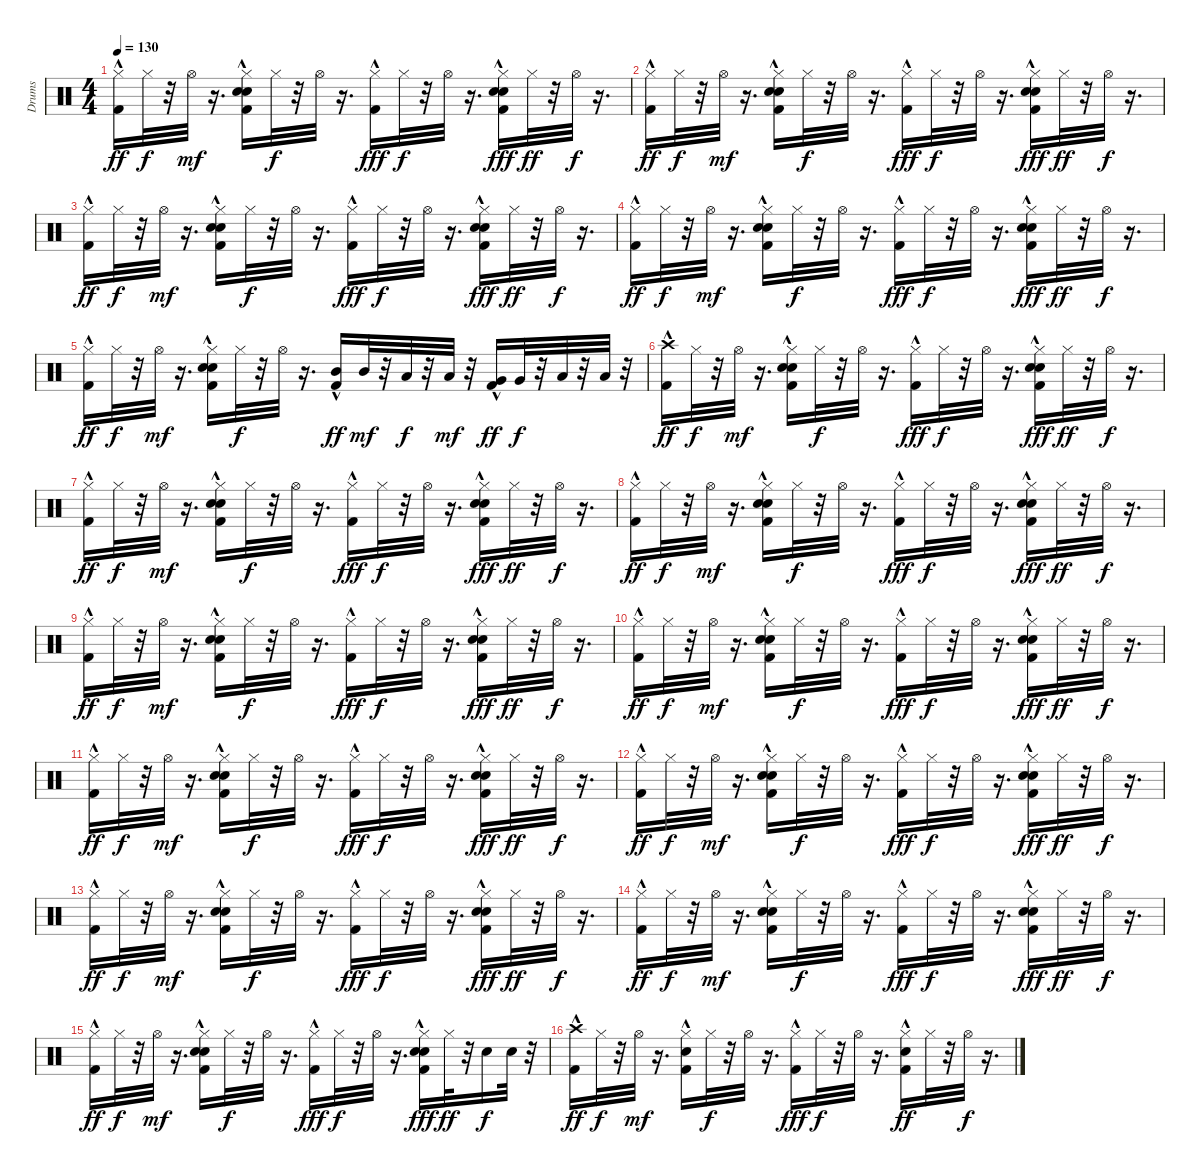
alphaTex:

\track ("Drums" "Drums") {instrument percussion}
\staff {score}
\articulation defaults
\ts (4 4)
\tempo 130
\clef neutral
\ks c
("Kick (hit) 2"{hac} "Hi-Hat (closed)").16{dy ff} "Hi-Hat (closed)".32{dy f} r.32 "Hi-Hat (open)".32{dy mf} r.16{d} ("Kick (hit) 2"{hac} "Hand Clap (hit)" "Electric Snare (hit)" "Hi-Hat (closed)").16 "Hi-Hat (closed)".32{dy f} r.32 "Hi-Hat (open)".32 r.16{d} ("Kick (hit) 2"{hac} "Hi-Hat (closed)").16{dy fff} "Hi-Hat (closed)".32{dy f} r.32 "Hi-Hat (open)".32 r.16{d} ("Kick (hit) 2"{hac} "Hand Clap (hit)" "Electric Snare (hit)" "Hi-Hat (closed)").16{dy fff} "Hi-Hat (closed)".32{dy ff} r.32 "Hi-Hat (open)".32{dy f} r.16{d} |
("Kick (hit) 2"{hac} "Hi-Hat (closed)").16{dy ff} "Hi-Hat (closed)".32{dy f} r.32 "Hi-Hat (open)".32{dy mf} r.16{d} ("Kick (hit) 2"{hac} "Hand Clap (hit)" "Electric Snare (hit)" "Hi-Hat (closed)").16 "Hi-Hat (closed)".32{dy f} r.32 "Hi-Hat (open)".32 r.16{d} ("Kick (hit) 2"{hac} "Hi-Hat (closed)").16{dy fff} "Hi-Hat (closed)".32{dy f} r.32 "Hi-Hat (open)".32 r.16{d} ("Kick (hit) 2"{hac} "Hand Clap (hit)" "Electric Snare (hit)" "Hi-Hat (closed)").16{dy fff} "Hi-Hat (closed)".32{dy ff} r.32 "Hi-Hat (open)".32{dy f} r.16{d} |
("Kick (hit) 2"{hac} "Hi-Hat (closed)").16{dy ff} "Hi-Hat (closed)".32{dy f} r.32 "Hi-Hat (open)".32{dy mf} r.16{d} ("Kick (hit) 2"{hac} "Hand Clap (hit)" "Electric Snare (hit)" "Hi-Hat (closed)").16 "Hi-Hat (closed)".32{dy f} r.32 "Hi-Hat (open)".32 r.16{d} ("Kick (hit) 2"{hac} "Hi-Hat (closed)").16{dy fff} "Hi-Hat (closed)".32{dy f} r.32 "Hi-Hat (open)".32 r.16{d} ("Kick (hit) 2"{hac} "Hand Clap (hit)" "Electric Snare (hit)" "Hi-Hat (closed)").16{dy fff} "Hi-Hat (closed)".32{dy ff} r.32 "Hi-Hat (open)".32{dy f} r.16{d} |
("Kick (hit) 2"{hac} "Hi-Hat (closed)").16{dy ff} "Hi-Hat (closed)".32{dy f} r.32 "Hi-Hat (open)".32{dy mf} r.16{d} ("Kick (hit) 2"{hac} "Hand Clap (hit)" "Electric Snare (hit)" "Hi-Hat (closed)").16 "Hi-Hat (closed)".32{dy f} r.32 "Hi-Hat (open)".32 r.16{d} ("Kick (hit) 2"{hac} "Hi-Hat (closed)").16{dy fff} "Hi-Hat (closed)".32{dy f} r.32 "Hi-Hat (open)".32 r.16{d} ("Kick (hit) 2"{hac} "Hand Clap (hit)" "Electric Snare (hit)" "Hi-Hat (closed)").16{dy fff} "Hi-Hat (closed)".32{dy ff} r.32 "Hi-Hat (open)".32{dy f} r.16{d} |
("Kick (hit) 2"{hac} "Hi-Hat (closed)").16{dy ff} "Hi-Hat (closed)".32{dy f} r.32 "Hi-Hat (open)".32{dy mf} r.16{d} ("Kick (hit) 2"{hac} "Hand Clap (hit)" "Electric Snare (hit)" "Hi-Hat (closed)").16 "Hi-Hat (closed)".32{dy f} r.32 "Hi-Hat (open)".32 r.16{d} ("Kick (hit) 2"{hac} "Mid Tom (hit)").16{dy ff} "Mid Tom (hit)".32{dy mf} r.32 "Low Tom (hit)".32{dy f} r.32 "Low Tom (hit)".32{dy mf} r.32 ("Kick (hit) 2"{hac} "Very Low Tom (hit)").16{dy ff} "Very Low Tom (hit)".32{dy f} r.32 "Low Floor Tom (hit)".32 r.32 "Low Floor Tom (hit)".32 r.32 |
("Kick (hit) 2"{hac} "Crash high (hit)").16{dy ff} "Hi-Hat (closed)".32{dy f} r.32 "Hi-Hat (open)".32{dy mf} r.16{d} ("Kick (hit) 2"{hac} "Hand Clap (hit)" "Electric Snare (hit)" "Hi-Hat (closed)").16 "Hi-Hat (closed)".32{dy f} r.32 "Hi-Hat (open)".32 r.16{d} ("Kick (hit) 2"{hac} "Hi-Hat (closed)").16{dy fff} "Hi-Hat (closed)".32{dy f} r.32 "Hi-Hat (open)".32 r.16{d} ("Kick (hit) 2"{hac} "Hand Clap (hit)" "Electric Snare (hit)" "Hi-Hat (closed)").16{dy fff} "Hi-Hat (closed)".32{dy ff} r.32 "Hi-Hat (open)".32{dy f} r.16{d} |
("Kick (hit) 2"{hac} "Hi-Hat (closed)").16{dy ff} "Hi-Hat (closed)".32{dy f} r.32 "Hi-Hat (open)".32{dy mf} r.16{d} ("Kick (hit) 2"{hac} "Hand Clap (hit)" "Electric Snare (hit)" "Hi-Hat (closed)").16 "Hi-Hat (closed)".32{dy f} r.32 "Hi-Hat (open)".32 r.16{d} ("Kick (hit) 2"{hac} "Hi-Hat (closed)").16{dy fff} "Hi-Hat (closed)".32{dy f} r.32 "Hi-Hat (open)".32 r.16{d} ("Kick (hit) 2"{hac} "Hand Clap (hit)" "Electric Snare (hit)" "Hi-Hat (closed)").16{dy fff} "Hi-Hat (closed)".32{dy ff} r.32 "Hi-Hat (open)".32{dy f} r.16{d} |
("Kick (hit) 2"{hac} "Hi-Hat (closed)").16{dy ff} "Hi-Hat (closed)".32{dy f} r.32 "Hi-Hat (open)".32{dy mf} r.16{d} ("Kick (hit) 2"{hac} "Hand Clap (hit)" "Electric Snare (hit)" "Hi-Hat (closed)").16 "Hi-Hat (closed)".32{dy f} r.32 "Hi-Hat (open)".32 r.16{d} ("Kick (hit) 2"{hac} "Hi-Hat (closed)").16{dy fff} "Hi-Hat (closed)".32{dy f} r.32 "Hi-Hat (open)".32 r.16{d} ("Kick (hit) 2"{hac} "Hand Clap (hit)" "Electric Snare (hit)" "Hi-Hat (closed)").16{dy fff} "Hi-Hat (closed)".32{dy ff} r.32 "Hi-Hat (open)".32{dy f} r.16{d} |
("Kick (hit) 2"{hac} "Hi-Hat (closed)").16{dy ff} "Hi-Hat (closed)".32{dy f} r.32 "Hi-Hat (open)".32{dy mf} r.16{d} ("Kick (hit) 2"{hac} "Hand Clap (hit)" "Electric Snare (hit)" "Hi-Hat (closed)").16 "Hi-Hat (closed)".32{dy f} r.32 "Hi-Hat (open)".32 r.16{d} ("Kick (hit) 2"{hac} "Hi-Hat (closed)").16{dy fff} "Hi-Hat (closed)".32{dy f} r.32 "Hi-Hat (open)".32 r.16{d} ("Kick (hit) 2"{hac} "Hand Clap (hit)" "Electric Snare (hit)" "Hi-Hat (closed)").16{dy fff} "Hi-Hat (closed)".32{dy ff} r.32 "Hi-Hat (open)".32{dy f} r.16{d} |
("Kick (hit) 2"{hac} "Hi-Hat (closed)").16{dy ff} "Hi-Hat (closed)".32{dy f} r.32 "Hi-Hat (open)".32{dy mf} r.16{d} ("Kick (hit) 2"{hac} "Hand Clap (hit)" "Electric Snare (hit)" "Hi-Hat (closed)").16 "Hi-Hat (closed)".32{dy f} r.32 "Hi-Hat (open)".32 r.16{d} ("Kick (hit) 2"{hac} "Hi-Hat (closed)").16{dy fff} "Hi-Hat (closed)".32{dy f} r.32 "Hi-Hat (open)".32 r.16{d} ("Kick (hit) 2"{hac} "Hand Clap (hit)" "Electric Snare (hit)" "Hi-Hat (closed)").16{dy fff} "Hi-Hat (closed)".32{dy ff} r.32 "Hi-Hat (open)".32{dy f} r.16{d} |
("Kick (hit) 2"{hac} "Hi-Hat (closed)").16{dy ff} "Hi-Hat (closed)".32{dy f} r.32 "Hi-Hat (open)".32{dy mf} r.16{d} ("Kick (hit) 2"{hac} "Hand Clap (hit)" "Electric Snare (hit)" "Hi-Hat (closed)").16 "Hi-Hat (closed)".32{dy f} r.32 "Hi-Hat (open)".32 r.16{d} ("Kick (hit) 2"{hac} "Hi-Hat (closed)").16{dy fff} "Hi-Hat (closed)".32{dy f} r.32 "Hi-Hat (open)".32 r.16{d} ("Kick (hit) 2"{hac} "Hand Clap (hit)" "Electric Snare (hit)" "Hi-Hat (closed)").16{dy fff} "Hi-Hat (closed)".32{dy ff} r.32 "Hi-Hat (open)".32{dy f} r.16{d} |
("Kick (hit) 2"{hac} "Hi-Hat (closed)").16{dy ff} "Hi-Hat (closed)".32{dy f} r.32 "Hi-Hat (open)".32{dy mf} r.16{d} ("Kick (hit) 2"{hac} "Hand Clap (hit)" "Electric Snare (hit)" "Hi-Hat (closed)").16 "Hi-Hat (closed)".32{dy f} r.32 "Hi-Hat (open)".32 r.16{d} ("Kick (hit) 2"{hac} "Hi-Hat (closed)").16{dy fff} "Hi-Hat (closed)".32{dy f} r.32 "Hi-Hat (open)".32 r.16{d} ("Kick (hit) 2"{hac} "Hand Clap (hit)" "Electric Snare (hit)" "Hi-Hat (closed)").16{dy fff} "Hi-Hat (closed)".32{dy ff} r.32 "Hi-Hat (open)".32{dy f} r.16{d} |
("Kick (hit) 2"{hac} "Hi-Hat (closed)").16{dy ff} "Hi-Hat (closed)".32{dy f} r.32 "Hi-Hat (open)".32{dy mf} r.16{d} ("Kick (hit) 2"{hac} "Hand Clap (hit)" "Electric Snare (hit)" "Hi-Hat (closed)").16 "Hi-Hat (closed)".32{dy f} r.32 "Hi-Hat (open)".32 r.16{d} ("Kick (hit) 2"{hac} "Hi-Hat (closed)").16{dy fff} "Hi-Hat (closed)".32{dy f} r.32 "Hi-Hat (open)".32 r.16{d} ("Kick (hit) 2"{hac} "Hand Clap (hit)" "Electric Snare (hit)" "Hi-Hat (closed)").16{dy fff} "Hi-Hat (closed)".32{dy ff} r.32 "Hi-Hat (open)".32{dy f} r.16{d} |
("Kick (hit) 2"{hac} "Hi-Hat (closed)").16{dy ff} "Hi-Hat (closed)".32{dy f} r.32 "Hi-Hat (open)".32{dy mf} r.16{d} ("Kick (hit) 2"{hac} "Hand Clap (hit)" "Electric Snare (hit)" "Hi-Hat (closed)").16 "Hi-Hat (closed)".32{dy f} r.32 "Hi-Hat (open)".32 r.16{d} ("Kick (hit) 2"{hac} "Hi-Hat (closed)").16{dy fff} "Hi-Hat (closed)".32{dy f} r.32 "Hi-Hat (open)".32 r.16{d} ("Kick (hit) 2"{hac} "Hand Clap (hit)" "Electric Snare (hit)" "Hi-Hat (closed)").16{dy fff} "Hi-Hat (closed)".32{dy ff} r.32 "Hi-Hat (open)".32{dy f} r.16{d} |
("Kick (hit) 2"{hac} "Hi-Hat (closed)").16{dy ff} "Hi-Hat (closed)".32{dy f} r.32 "Hi-Hat (open)".32{dy mf} r.16{d} ("Kick (hit) 2"{hac} "Hand Clap (hit)" "Electric Snare (hit)" "Hi-Hat (closed)").16 "Hi-Hat (closed)".32{dy f} r.32 "Hi-Hat (open)".32 r.16{d} ("Kick (hit) 2"{hac} "Hi-Hat (closed)").16{dy fff} "Hi-Hat (closed)".32{dy f} r.32 "Hi-Hat (open)".32 r.16{d} ("Kick (hit) 2"{hac} "Hand Clap (hit)" "Electric Snare (hit)" "Hi-Hat (closed)").16{dy fff} "Hi-Hat (closed)".32{dy ff} r.32 "Electric Snare (hit)".16{dy f} "Electric Snare (hit)".32 r.32 |
("Kick (hit) 2"{hac} "Crash high (hit)").16{dy ff} "Hi-Hat (closed)".32{dy f} r.32 "Hi-Hat (open)".32{dy mf} r.16{d} ("Kick (hit) 2"{hac} "Electric Snare (hit)" "Hi-Hat (closed)").16 "Hi-Hat (closed)".32{dy f} r.32 "Hi-Hat (open)".32 r.16{d} ("Kick (hit) 2"{hac} "Hi-Hat (closed)").16{dy fff} "Hi-Hat (closed)".32{dy f} r.32 "Hi-Hat (open)".32 r.16{d} ("Kick (hit) 2"{hac} "Electric Snare (hit)" "Hi-Hat (closed)").16{dy ff} "Hi-Hat (closed)".32 r.32 "Hi-Hat (open)".32{dy f} r.16{d}
